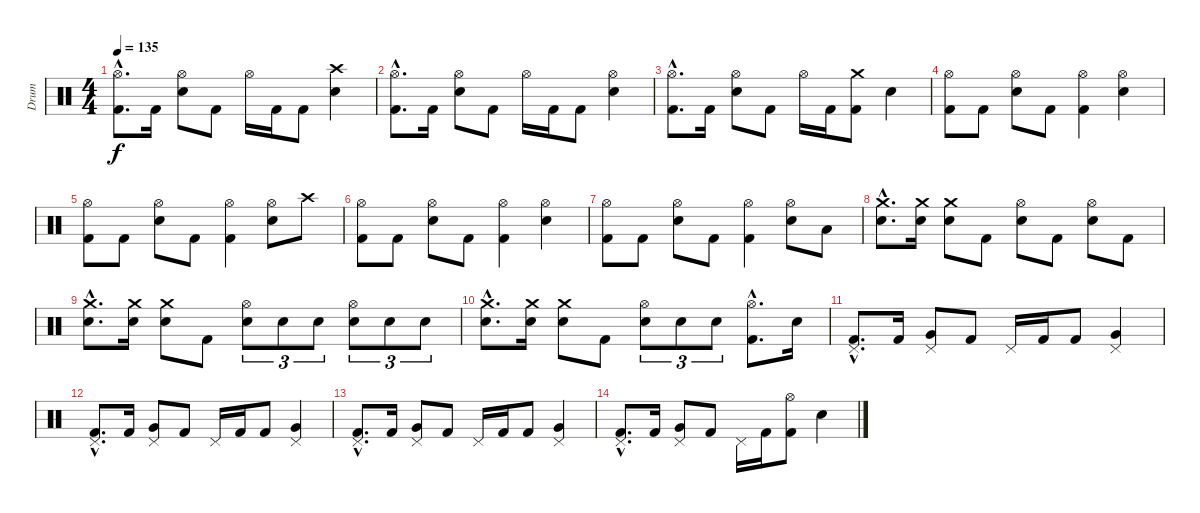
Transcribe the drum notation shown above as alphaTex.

\track ("Drum" "Drum") {instrument percussion}
\staff {score}
\articulation defaults
\ts (4 4)
\tempo 135
\clef neutral
\ks c
("Hi-Hat (open)"{hac} "Kick (hit) 2"{hac}).8{d dy f} "Kick (hit) 2".16 ("Hi-Hat (open)" "Electric Snare (hit)").8 "Kick (hit) 2".8 "Hi-Hat (open)".16 "Kick (hit) 2".16 "Kick (hit) 2".8 ("Crash high (hit)" "Electric Snare (hit)").4 |
("Hi-Hat (open)"{hac} "Kick (hit) 2"{hac}).8{d} "Kick (hit) 2".16 ("Hi-Hat (open)" "Electric Snare (hit)").8 "Kick (hit) 2".8 "Hi-Hat (open)".16 "Kick (hit) 2".16 "Kick (hit) 2".8 ("Hi-Hat (open)" "Electric Snare (hit)").4 |
("Hi-Hat (open)"{hac} "Kick (hit) 2"{hac}).8{d} "Kick (hit) 2".16 ("Hi-Hat (open)" "Electric Snare (hit)").8 "Kick (hit) 2".8 "Hi-Hat (open)".16 "Kick (hit) 2".16 ("Crash medium (hit)" "Kick (hit) 2").8 "Electric Snare (hit)".4 |
("Hi-Hat (open)" "Kick (hit) 2").8 "Kick (hit) 2".8 ("Hi-Hat (open)" "Electric Snare (hit)").8 "Kick (hit) 2".8 ("Hi-Hat (open)" "Kick (hit) 2").4 ("Hi-Hat (open)" "Electric Snare (hit)").4 |
("Hi-Hat (open)" "Kick (hit) 2").8 "Kick (hit) 2".8 ("Hi-Hat (open)" "Electric Snare (hit)").8 "Kick (hit) 2".8 ("Hi-Hat (open)" "Kick (hit) 2").4 ("Hi-Hat (open)" "Electric Snare (hit)").8 "Crash high (hit)".8 |
("Hi-Hat (open)" "Kick (hit) 2").8 "Kick (hit) 2".8 ("Hi-Hat (open)" "Electric Snare (hit)").8 "Kick (hit) 2".8 ("Hi-Hat (open)" "Kick (hit) 2").4 ("Hi-Hat (open)" "Electric Snare (hit)").4 |
("Hi-Hat (open)" "Kick (hit) 2").8 "Kick (hit) 2".8 ("Hi-Hat (open)" "Electric Snare (hit)").8 "Kick (hit) 2".8 ("Hi-Hat (open)" "Kick (hit) 2").4 ("Hi-Hat (open)" "Electric Snare (hit)").8 "Low Tom (hit)".8 |
("Crash medium (hit)"{hac} "Electric Snare (hit)"{hac}).8{d} ("Crash medium (hit)" "Electric Snare (hit)").16 ("Crash medium (hit)" "Electric Snare (hit)").8 "Kick (hit) 2".8 ("Hi-Hat (open)" "Electric Snare (hit)").8 "Kick (hit) 2".8 ("Hi-Hat (open)" "Electric Snare (hit)").8 "Kick (hit) 2".8 |
("Crash medium (hit)"{hac} "Electric Snare (hit)"{hac}).8{d} ("Crash medium (hit)" "Electric Snare (hit)").16 ("Crash medium (hit)" "Electric Snare (hit)").8 "Kick (hit) 2".8 ("Hi-Hat (open)" "Electric Snare (hit)").8{tu (3 2)} "Electric Snare (hit)".8{tu (3 2)} "Electric Snare (hit)".8{tu (3 2)} ("Hi-Hat (open)" "Electric Snare (hit)").8{tu (3 2)} "Electric Snare (hit)".8{tu (3 2)} "Electric Snare (hit)".8{tu (3 2)} |
("Crash medium (hit)"{hac} "Electric Snare (hit)"{hac}).8{d} ("Crash medium (hit)" "Electric Snare (hit)").16 ("Crash medium (hit)" "Electric Snare (hit)").8 "Kick (hit) 2".8 ("Hi-Hat (open)" "Electric Snare (hit)").8{tu (3 2)} "Electric Snare (hit)".8{tu (3 2)} "Electric Snare (hit)".8{tu (3 2)} ("Hi-Hat (open)"{hac} "Kick (hit) 2"{hac}).8{d} "Electric Snare (hit)".16 |
("Pedal Hi-Hat (hit)"{hac} "Kick (hit) 2"{hac}).8{d} "Kick (hit) 2".16 ("Pedal Hi-Hat (hit)" "Very Low Tom (hit)").8 "Kick (hit) 2".8 "Pedal Hi-Hat (hit)".16 "Kick (hit) 2".16 "Kick (hit) 2".8 ("Pedal Hi-Hat (hit)" "Very Low Tom (hit)").4 |
("Pedal Hi-Hat (hit)"{hac} "Kick (hit) 2"{hac}).8{d} "Kick (hit) 2".16 ("Pedal Hi-Hat (hit)" "Very Low Tom (hit)").8 "Kick (hit) 2".8 "Pedal Hi-Hat (hit)".16 "Kick (hit) 2".16 "Kick (hit) 2".8 ("Pedal Hi-Hat (hit)" "Very Low Tom (hit)").4 |
("Pedal Hi-Hat (hit)"{hac} "Kick (hit) 2"{hac}).8{d} "Kick (hit) 2".16 ("Pedal Hi-Hat (hit)" "Very Low Tom (hit)").8 "Kick (hit) 2".8 "Pedal Hi-Hat (hit)".16 "Kick (hit) 2".16 "Kick (hit) 2".8 ("Pedal Hi-Hat (hit)" "Very Low Tom (hit)").4 |
("Pedal Hi-Hat (hit)"{hac} "Kick (hit) 2"{hac}).8{d} "Kick (hit) 2".16 ("Pedal Hi-Hat (hit)" "Very Low Tom (hit)").8 "Kick (hit) 2".8 "Pedal Hi-Hat (hit)".16 "Kick (hit) 2".16 ("Hi-Hat (open)" "Kick (hit) 2").8 "Electric Snare (hit)".4
